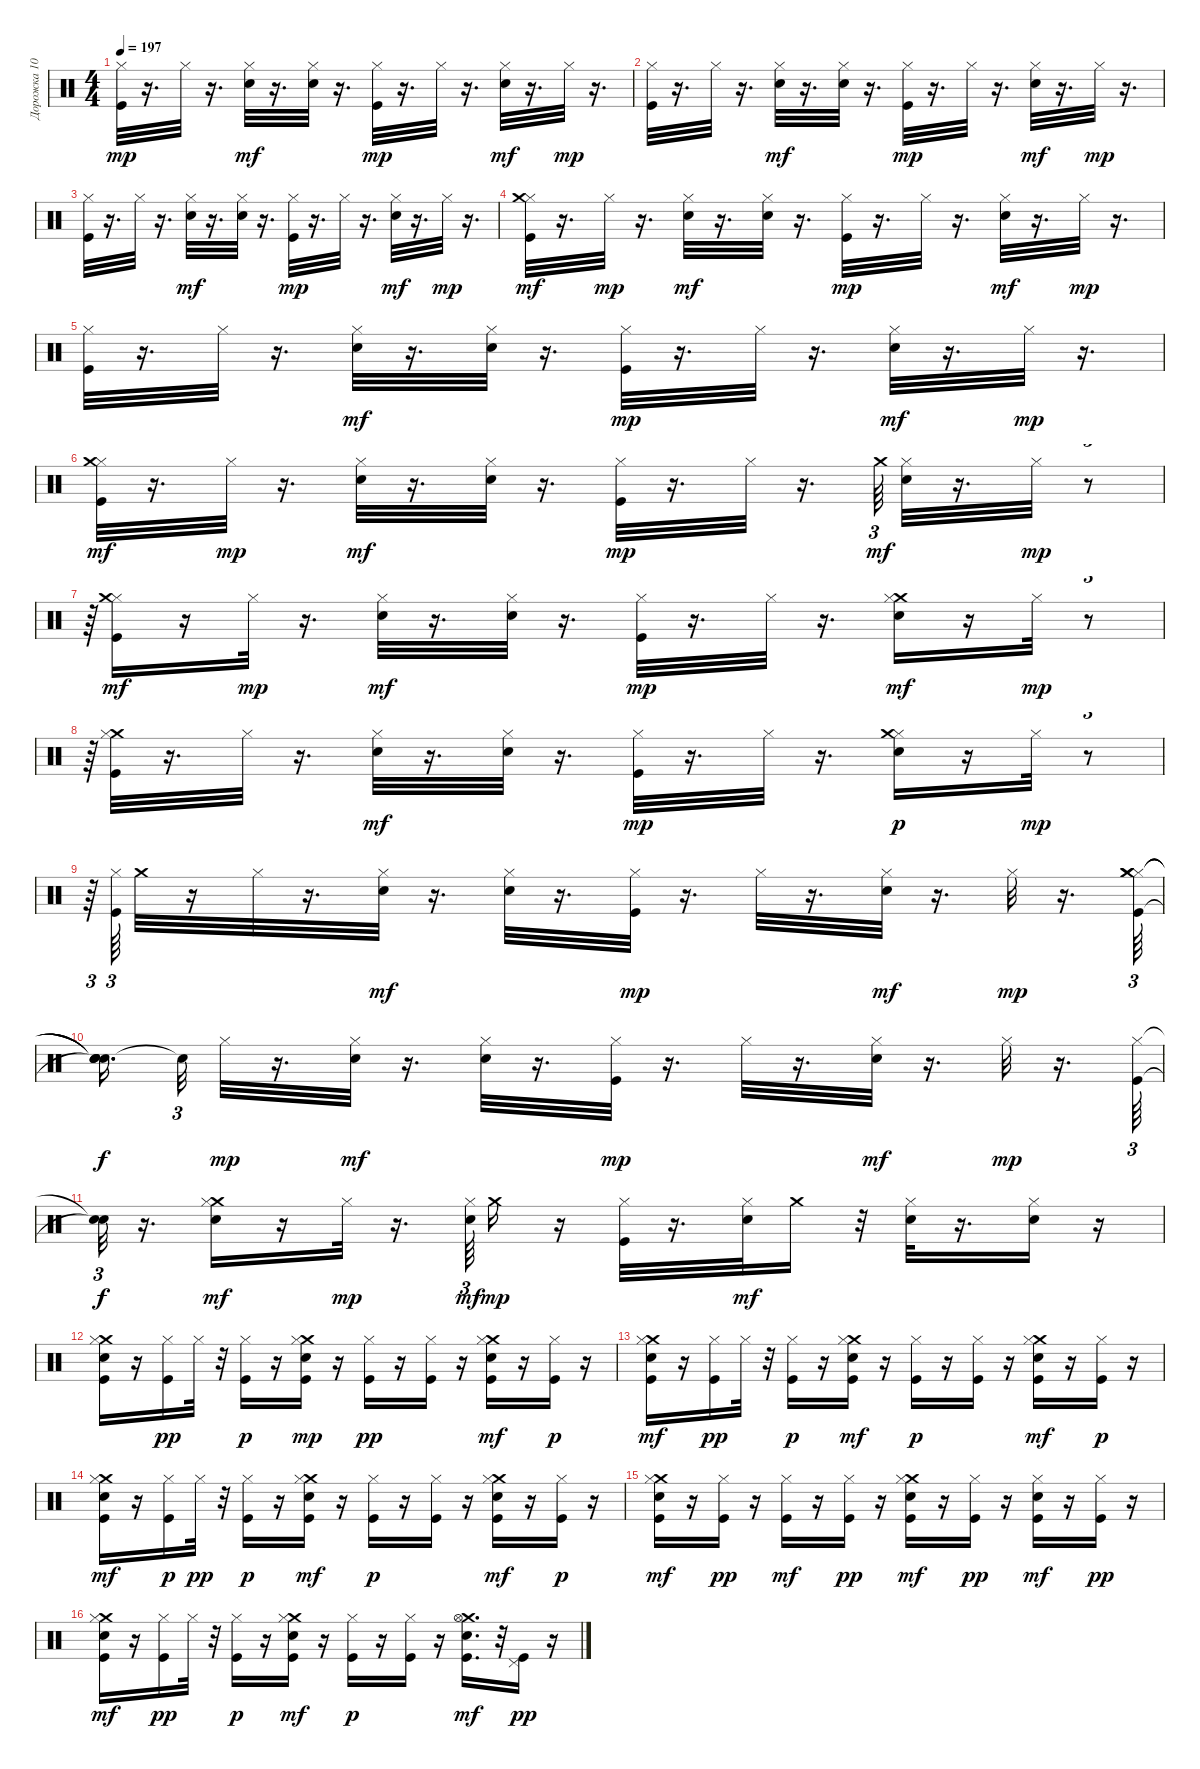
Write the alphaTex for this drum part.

\track ("Дорожка 10" "Дорожка 10") {instrument percussion}
\staff {score}
\articulation defaults
\ts (4 4)
\tempo 197
\clef neutral
\ks c
("Hi-Hat (closed)" "Kick (hit)").32{dy mp} r.16{d} "Hi-Hat (closed)".32 r.16{d} ("Hi-Hat (closed)" "Electric Snare (hit)").32{dy mf} r.16{d} ("Hi-Hat (closed)" "Electric Snare (hit)").32 r.16{d} ("Hi-Hat (closed)" "Kick (hit)").32{dy mp} r.16{d} "Hi-Hat (closed)".32 r.16{d} ("Hi-Hat (closed)" "Electric Snare (hit)").32{dy mf} r.16{d} "Hi-Hat (closed)".32{dy mp} r.16{d} |
("Hi-Hat (closed)" "Kick (hit)").32 r.16{d} "Hi-Hat (closed)".32 r.16{d} ("Hi-Hat (closed)" "Electric Snare (hit)").32{dy mf} r.16{d} ("Hi-Hat (closed)" "Electric Snare (hit)").32 r.16{d} ("Hi-Hat (closed)" "Kick (hit)").32{dy mp} r.16{d} "Hi-Hat (closed)".32 r.16{d} ("Hi-Hat (closed)" "Electric Snare (hit)").32{dy mf} r.16{d} "Hi-Hat (closed)".32{dy mp} r.16{d} |
("Hi-Hat (closed)" "Kick (hit)").32 r.16{d} "Hi-Hat (closed)".32 r.16{d} ("Hi-Hat (closed)" "Electric Snare (hit)").32{dy mf} r.16{d} ("Hi-Hat (closed)" "Electric Snare (hit)").32 r.16{d} ("Hi-Hat (closed)" "Kick (hit)").32{dy mp} r.16{d} "Hi-Hat (closed)".32 r.16{d} ("Hi-Hat (closed)" "Electric Snare (hit)").32{dy mf} r.16{d} "Hi-Hat (closed)".32{dy mp} r.16{d} |
("Hi-Hat (closed)" "Kick (hit)" "Crash medium (hit)").32{dy mf} r.16{d} "Hi-Hat (closed)".32{dy mp} r.16{d} ("Hi-Hat (closed)" "Electric Snare (hit)").32{dy mf} r.16{d} ("Hi-Hat (closed)" "Electric Snare (hit)").32 r.16{d} ("Hi-Hat (closed)" "Kick (hit)").32{dy mp} r.16{d} "Hi-Hat (closed)".32 r.16{d} ("Hi-Hat (closed)" "Electric Snare (hit)").32{dy mf} r.16{d} "Hi-Hat (closed)".32{dy mp} r.16{d} |
("Hi-Hat (closed)" "Kick (hit)").32 r.16{d} "Hi-Hat (closed)".32 r.16{d} ("Hi-Hat (closed)" "Electric Snare (hit)").32{dy mf} r.16{d} ("Hi-Hat (closed)" "Electric Snare (hit)").32 r.16{d} ("Hi-Hat (closed)" "Kick (hit)").32{dy mp} r.16{d} "Hi-Hat (closed)".32 r.16{d} ("Hi-Hat (closed)" "Electric Snare (hit)").32{dy mf} r.16{d} "Hi-Hat (closed)".32{dy mp} r.16{d} |
("Hi-Hat (closed)" "Kick (hit)" "Crash medium (hit)").32{dy mf} r.16{d} "Hi-Hat (closed)".32{dy mp} r.16{d} ("Hi-Hat (closed)" "Electric Snare (hit)").32{dy mf} r.16{d} ("Hi-Hat (closed)" "Electric Snare (hit)").32 r.16{d} ("Hi-Hat (closed)" "Kick (hit)").32{dy mp} r.16{d} "Hi-Hat (closed)".32 r.16{d} "Crash medium (hit)".64{tu (3 2) dy mf} ("Hi-Hat (closed)" "Electric Snare (hit)").32 r.16{d} "Hi-Hat (closed)".32{dy mp} r.8{tu (3 2)} |
r.64{tu (3 2)} ("Hi-Hat (closed)" "Kick (hit)" "Crash medium (hit)").16{dy mf} r.16 "Hi-Hat (closed)".32{dy mp} r.16{d} ("Hi-Hat (closed)" "Electric Snare (hit)").32{dy mf} r.16{d} ("Hi-Hat (closed)" "Electric Snare (hit)").32 r.16{d} ("Hi-Hat (closed)" "Kick (hit)").32{dy mp} r.16{d} "Hi-Hat (closed)".32 r.16{d} ("Crash medium (hit)" "Hi-Hat (closed)" "Electric Snare (hit)").16{dy mf} r.16 "Hi-Hat (closed)".32{dy mp} r.8{tu (3 2)} |
r.64{tu (3 2)} ("Crash medium (hit)" "Hi-Hat (closed)" "Kick (hit)").32 r.16{d} "Hi-Hat (closed)".32 r.16{d} ("Hi-Hat (closed)" "Electric Snare (hit)").32{dy mf} r.16{d} ("Hi-Hat (closed)" "Electric Snare (hit)").32 r.16{d} ("Hi-Hat (closed)" "Kick (hit)").32{dy mp} r.16{d} "Hi-Hat (closed)".32 r.16{d} ("Hi-Hat (closed)" "Electric Snare (hit)" "Crash medium (hit)").16{dy p} r.16 "Hi-Hat (closed)".32{dy mp} r.8{tu (3 2)} |
r.64{tu (3 2)} ("Hi-Hat (closed)" "Kick (hit)").64{tu (3 2)} "Crash medium (hit)".32 r.16 "Hi-Hat (closed)".32 r.16{d} ("Hi-Hat (closed)" "Electric Snare (hit)").32{dy mf} r.16{d} ("Hi-Hat (closed)" "Electric Snare (hit)").32 r.16{d} ("Hi-Hat (closed)" "Kick (hit)").32{dy mp} r.16{d} "Hi-Hat (closed)".32 r.16{d} ("Hi-Hat (closed)" "Electric Snare (hit)").32{dy mf} r.16{d} "Hi-Hat (closed)".32{dy mp} r.16{d} ("Hi-Hat (closed)" "Kick (hit)" "Crash medium (hit)" "Crash medium (hit)").64{tu (3 2)} |
("Snare (hit)"{t} "Snare (hit)"{t} "Snare (hit)"{t} "Snare (hit)"{t}).16{d dy f beam splitsecondary} "Snare (hit)"{t}.32{tu (3 2)} "Hi-Hat (closed)".32{dy mp} r.16{d} ("Hi-Hat (closed)" "Electric Snare (hit)").32{dy mf} r.16{d} ("Hi-Hat (closed)" "Electric Snare (hit)").32 r.16{d} ("Hi-Hat (closed)" "Kick (hit)").32{dy mp} r.16{d} "Hi-Hat (closed)".32 r.16{d} ("Hi-Hat (closed)" "Electric Snare (hit)").32{dy mf} r.16{d} "Hi-Hat (closed)".32{dy mp} r.16{d} ("Hi-Hat (closed)" "Kick (hit)").64{tu (3 2)} |
("Snare (hit)"{t} "Snare (hit)"{t}).32{tu (3 2) dy f} r.16{d} ("Crash medium (hit)" "Hi-Hat (closed)" "Electric Snare (hit)").16{dy mf} r.16 "Hi-Hat (closed)".32{dy mp} r.16{d} ("Hi-Hat (closed)" "Electric Snare (hit)").64{tu (3 2) dy mf} "Crash medium (hit)".16{dy mp} r.16 ("Hi-Hat (closed)" "Kick (hit)").32 r.16{d} ("Hi-Hat (closed)" "Electric Snare (hit)").32{dy mf} "Crash medium (hit)".16 r.32 ("Hi-Hat (closed)" "Electric Snare (hit)").32 r.16{d} ("Hi-Hat (closed)" "Electric Snare (hit)").16 r.16 |
("Snare (hit) 2" "Crash medium (hit)" "Kick (hit)" "Hi-Hat (closed)").16 r.16 ("Kick (hit)" "Hi-Hat (closed)").16{dy pp} "Hi-Hat (closed)".32 r.32 ("Kick (hit)" "Hi-Hat (closed)").16{dy p} r.16 ("Crash medium (hit)" "Snare (hit) 2" "Kick (hit)" "Hi-Hat (closed)").16{dy mp} r.16 ("Kick (hit)" "Hi-Hat (closed)").16{dy pp} r.16 ("Kick (hit)" "Hi-Hat (closed)").16 r.16 ("Crash medium (hit)" "Snare (hit) 2" "Kick (hit)" "Hi-Hat (closed)").16{dy mf} r.16 ("Kick (hit)" "Hi-Hat (closed)").16{dy p} r.16 |
("Crash medium (hit)" "Snare (hit) 2" "Kick (hit)" "Hi-Hat (closed)").16{dy mf} r.16 ("Kick (hit)" "Hi-Hat (closed)").16{dy pp} "Hi-Hat (closed)".32 r.32 ("Kick (hit)" "Hi-Hat (closed)").16{dy p} r.16 ("Crash medium (hit)" "Snare (hit) 2" "Kick (hit)" "Hi-Hat (closed)").16{dy mf} r.16 ("Kick (hit)" "Hi-Hat (closed)").16{dy p} r.16 ("Kick (hit)" "Hi-Hat (closed)").16 r.16 ("Crash medium (hit)" "Snare (hit) 2" "Kick (hit)" "Hi-Hat (closed)").16{dy mf} r.16 ("Kick (hit)" "Hi-Hat (closed)").16{dy p} r.16 |
("Crash medium (hit)" "Snare (hit) 2" "Kick (hit)" "Hi-Hat (closed)").16{dy mf} r.16 ("Kick (hit)" "Hi-Hat (closed)").16{dy p} "Hi-Hat (closed)".32{dy pp} r.32 ("Kick (hit)" "Hi-Hat (closed)").16{dy p} r.16 ("Crash medium (hit)" "Snare (hit) 2" "Kick (hit)" "Hi-Hat (closed)").16{dy mf} r.16 ("Kick (hit)" "Hi-Hat (closed)").16{dy p} r.16 ("Kick (hit)" "Hi-Hat (closed)").16 r.16 ("Crash medium (hit)" "Snare (hit) 2" "Kick (hit)" "Hi-Hat (closed)").16{dy mf} r.16 ("Kick (hit)" "Hi-Hat (closed)").16{dy p} r.16 |
("Crash medium (hit)" "Snare (hit) 2" "Kick (hit)" "Hi-Hat (closed)").16{dy mf} r.16 ("Kick (hit)" "Hi-Hat (closed)").16{dy pp} r.16 ("Kick (hit)" "Hi-Hat (closed)").16{dy mf} r.16 ("Kick (hit)" "Hi-Hat (closed)").16{dy pp} r.16 ("Snare (hit) 2" "Crash medium (hit)" "Kick (hit)" "Hi-Hat (closed)").16{dy mf} r.16 ("Kick (hit)" "Hi-Hat (closed)").16{dy pp} r.16 ("Snare (hit) 2" "Kick (hit)" "Hi-Hat (closed)").16{dy mf} r.16 ("Kick (hit)" "Hi-Hat (closed)").16{dy pp} r.16 |
("Crash medium (hit)" "Snare (hit) 2" "Kick (hit)" "Hi-Hat (closed)").16{dy mf} r.16 ("Kick (hit)" "Hi-Hat (closed)").16{dy pp} "Hi-Hat (closed)".32 r.32 ("Kick (hit)" "Hi-Hat (closed)").16{dy p} r.16 ("Snare (hit) 2" "Crash medium (hit)" "Kick (hit)" "Hi-Hat (closed)").16{dy mf} r.16 ("Kick (hit)" "Hi-Hat (closed)").16{dy p} r.16 ("Kick (hit)" "Hi-Hat (closed)").16 r.16 ("Crash medium (hit)" "Snare (hit) 2" "Kick (hit)" "Hi-Hat (open)").16{d dy mf} r.32 ("Kick (hit)" "Pedal Hi-Hat (hit)").16{dy pp} r.16
